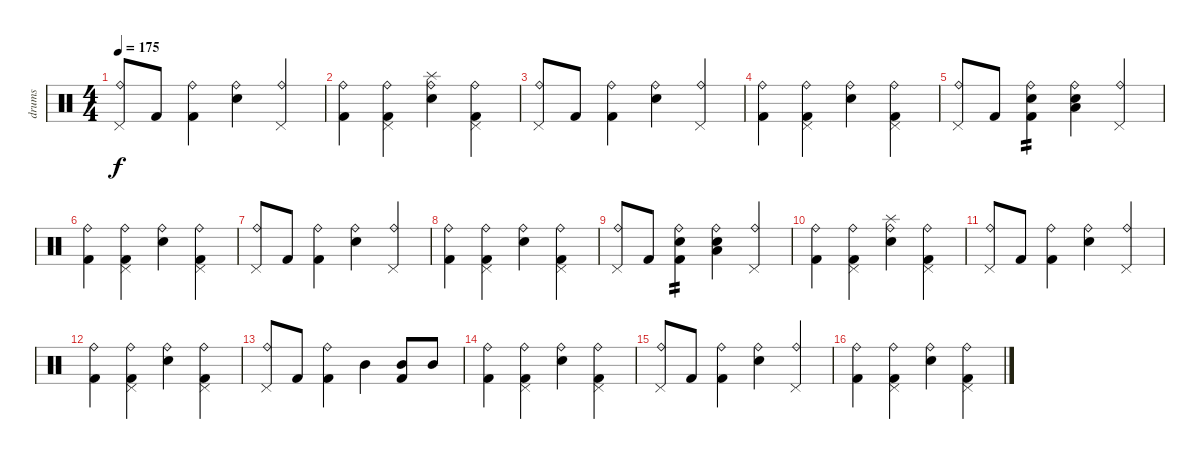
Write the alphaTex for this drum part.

\track ("drums" "drums") {instrument percussion}
\staff {score}
\articulation defaults
\ts (4 4)
\tempo 175
\clef neutral
\ks c
("Ride (bell)" "Pedal Hi-Hat (hit)").8{dy f} "Kick (hit) 2".8 ("Ride (bell)" "Kick (hit) 2").4 ("Ride (bell)" "Electric Snare (hit)").4 ("Ride (bell)" "Pedal Hi-Hat (hit)").4 |
("Ride (bell)" "Kick (hit) 2").4 ("Ride (bell)" "Pedal Hi-Hat (hit)" "Kick (hit) 2").4 ("Splash (hit)" "Ride (bell)" "Electric Snare (hit)").4 ("Ride (bell)" "Pedal Hi-Hat (hit)" "Kick (hit) 2").4 |
("Ride (bell)" "Pedal Hi-Hat (hit)").8 "Kick (hit) 2".8 ("Ride (bell)" "Kick (hit) 2").4 ("Ride (bell)" "Electric Snare (hit)").4 ("Ride (bell)" "Pedal Hi-Hat (hit)").4 |
("Ride (bell)" "Kick (hit) 2").4 ("Ride (bell)" "Pedal Hi-Hat (hit)" "Kick (hit) 2").4 ("Ride (bell)" "Electric Snare (hit)").4 ("Ride (bell)" "Pedal Hi-Hat (hit)" "Kick (hit) 2").4 |
("Ride (bell)" "Pedal Hi-Hat (hit)").8 "Kick (hit) 2".8 ("Electric Snare (hit)" "Ride (bell)" "Kick (hit) 2").4{tp 2} ("Low Tom (hit)" "Ride (bell)" "Electric Snare (hit)").4 ("Ride (bell)" "Pedal Hi-Hat (hit)").4 |
("Ride (bell)" "Kick (hit) 2").4 ("Ride (bell)" "Pedal Hi-Hat (hit)" "Kick (hit) 2").4 ("Ride (bell)" "Electric Snare (hit)").4 ("Ride (bell)" "Pedal Hi-Hat (hit)" "Kick (hit) 2").4 |
("Ride (bell)" "Pedal Hi-Hat (hit)").8 "Kick (hit) 2".8 ("Ride (bell)" "Kick (hit) 2").4 ("Ride (bell)" "Electric Snare (hit)").4 ("Ride (bell)" "Pedal Hi-Hat (hit)").4 |
("Ride (bell)" "Kick (hit) 2").4 ("Ride (bell)" "Pedal Hi-Hat (hit)" "Kick (hit) 2").4 ("Ride (bell)" "Electric Snare (hit)").4 ("Ride (bell)" "Pedal Hi-Hat (hit)" "Kick (hit) 2").4 |
("Ride (bell)" "Pedal Hi-Hat (hit)").8 "Kick (hit) 2".8 ("Electric Snare (hit)" "Ride (bell)" "Kick (hit) 2").4{tp 2} ("Low Tom (hit)" "Ride (bell)" "Electric Snare (hit)").4 ("Ride (bell)" "Pedal Hi-Hat (hit)").4 |
("Ride (bell)" "Kick (hit) 2").4 ("Ride (bell)" "Pedal Hi-Hat (hit)" "Kick (hit) 2").4 ("Splash (hit)" "Ride (bell)" "Electric Snare (hit)").4 ("Ride (bell)" "Pedal Hi-Hat (hit)" "Kick (hit) 2").4 |
("Ride (bell)" "Pedal Hi-Hat (hit)").8 "Kick (hit) 2".8 ("Ride (bell)" "Kick (hit) 2").4 ("Ride (bell)" "Electric Snare (hit)").4 ("Ride (bell)" "Pedal Hi-Hat (hit)").4 |
("Ride (bell)" "Kick (hit) 2").4 ("Ride (bell)" "Pedal Hi-Hat (hit)" "Kick (hit) 2").4 ("Ride (bell)" "Electric Snare (hit)").4 ("Ride (bell)" "Pedal Hi-Hat (hit)" "Kick (hit) 2").4 |
("Ride (bell)" "Pedal Hi-Hat (hit)").8 "Kick (hit) 2".8 ("Ride (bell)" "Kick (hit) 2").4 "Mid Tom (hit)".4 ("Mid Tom (hit)" "Kick (hit) 2").8 "Mid Tom (hit)".8 |
("Ride (bell)" "Kick (hit) 2").4 ("Ride (bell)" "Pedal Hi-Hat (hit)" "Kick (hit) 2").4 ("Ride (bell)" "Electric Snare (hit)").4 ("Ride (bell)" "Pedal Hi-Hat (hit)" "Kick (hit) 2").4 |
("Ride (bell)" "Pedal Hi-Hat (hit)").8 "Kick (hit) 2".8 ("Ride (bell)" "Kick (hit) 2").4 ("Ride (bell)" "Electric Snare (hit)").4 ("Ride (bell)" "Pedal Hi-Hat (hit)").4 |
("Ride (bell)" "Kick (hit) 2").4 ("Ride (bell)" "Pedal Hi-Hat (hit)" "Kick (hit) 2").4 ("Ride (bell)" "Electric Snare (hit)").4 ("Ride (bell)" "Pedal Hi-Hat (hit)" "Kick (hit) 2").4
